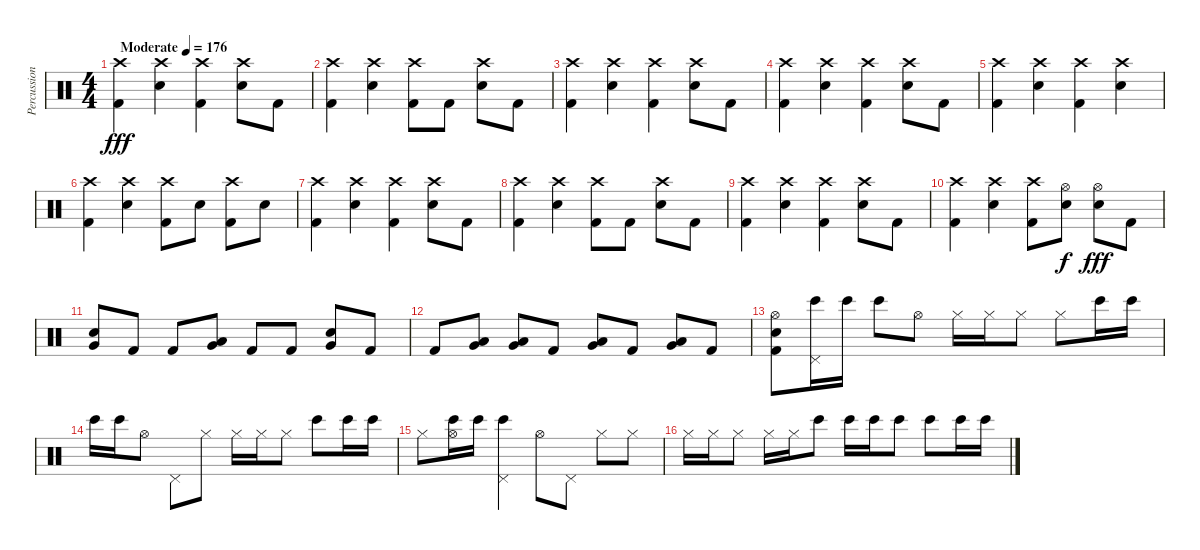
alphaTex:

\track ("Percussion" "Percussion") {instrument percussion}
\staff {score}
\articulation defaults
\ts (4 4)
\tempo (176 "Moderate")
\clef neutral
\ks c
("Crash high (hit)" "Kick (hit) 2").4{dy fff} ("Crash high (hit)" "Snare (hit) 2").4 ("Crash high (hit)" "Kick (hit) 2").4 ("Crash high (hit)" "Snare (hit) 2").8 "Kick (hit) 2".8 |
("Crash high (hit)" "Kick (hit) 2").4 ("Crash high (hit)" "Snare (hit) 2").4 ("Crash high (hit)" "Kick (hit) 2").8 "Kick (hit) 2".8 ("Crash high (hit)" "Snare (hit) 2").8 "Kick (hit) 2".8 |
("Crash high (hit)" "Kick (hit) 2").4 ("Crash high (hit)" "Snare (hit) 2").4 ("Crash high (hit)" "Kick (hit) 2").4 ("Crash high (hit)" "Snare (hit) 2").8 "Kick (hit) 2".8 |
("Crash high (hit)" "Kick (hit) 2").4 ("Crash high (hit)" "Snare (hit) 2").4 ("Crash high (hit)" "Kick (hit) 2").4 ("Crash high (hit)" "Snare (hit) 2").8 "Kick (hit) 2".8 |
("Crash high (hit)" "Kick (hit) 2").4 ("Crash high (hit)" "Snare (hit) 2").4 ("Crash high (hit)" "Kick (hit) 2").4 ("Crash high (hit)" "Snare (hit) 2").4 |
("Crash high (hit)" "Kick (hit) 2").4 ("Crash high (hit)" "Snare (hit) 2").4 ("Crash high (hit)" "Kick (hit) 2").8 "Snare (hit) 2".8 ("Crash high (hit)" "Kick (hit) 2").8 "Snare (hit) 2".8 |
("Crash high (hit)" "Kick (hit) 2").4 ("Crash high (hit)" "Snare (hit) 2").4 ("Crash high (hit)" "Kick (hit) 2").4 ("Crash high (hit)" "Snare (hit) 2").8 "Kick (hit) 2".8 |
("Crash high (hit)" "Kick (hit) 2").4 ("Crash high (hit)" "Snare (hit) 2").4 ("Crash high (hit)" "Kick (hit) 2").8 "Kick (hit) 2".8 ("Crash high (hit)" "Snare (hit) 2").8 "Kick (hit) 2".8 |
("Crash high (hit)" "Kick (hit) 2").4 ("Crash high (hit)" "Snare (hit) 2").4 ("Crash high (hit)" "Kick (hit) 2").4 ("Crash high (hit)" "Snare (hit) 2").8 "Kick (hit) 2".8 |
("Crash high (hit)" "Kick (hit) 2").4 ("Crash high (hit)" "Snare (hit) 2").4 ("Crash high (hit)" "Kick (hit) 2").8 ("Hi-Hat (open)" "Snare (hit) 2").8{dy f} ("Hi-Hat (open)" "Snare (hit) 2").8{dy fff} "Kick (hit) 2".8 |
("Snare (hit) 2" "Very Low Tom (hit)").8 "Kick (hit) 2".8 "Kick (hit) 2".8 ("Very Low Tom (hit)" "Low Floor Tom (hit)").8 "Kick (hit) 2".8 "Kick (hit) 2".8 ("Snare (hit) 2" "Very Low Tom (hit)").8 "Kick (hit) 2".8 |
"Kick (hit) 2".8 ("Very Low Tom (hit)" "Low Floor Tom (hit)").8 ("Very Low Tom (hit)" "Low Floor Tom (hit)").8 "Kick (hit) 2".8 ("Very Low Tom (hit)" "Low Floor Tom (hit)").8 "Kick (hit) 2".8 ("Very Low Tom (hit)" "Low Floor Tom (hit)").8 "Kick (hit) 2".8 |
("Hi-Hat (open)" "Snare (hit) 2" "Kick (hit) 2").8 ("Pedal Hi-Hat (hit)" "Bongo High (hit)").16 "Bongo High (hit)".16 "Bongo High (hit)".8 "Hi-Hat (open)".8 "Hi-Hat (closed)".16 "Hi-Hat (closed)".16 "Hi-Hat (closed)".8 "Hi-Hat (closed)".8 "Bongo High (hit)".16 "Bongo High (hit)".16 |
"Bongo High (hit)".16 "Bongo High (hit)".16 "Hi-Hat (open)".8 "Pedal Hi-Hat (hit)".8 "Hi-Hat (closed)".8 "Hi-Hat (closed)".16 "Hi-Hat (closed)".16 "Hi-Hat (closed)".8 "Bongo High (hit)".8 "Bongo High (hit)".16 "Bongo High (hit)".16 |
"Hi-Hat (closed)".8 ("Hi-Hat (open)" "Bongo High (hit)").16 "Bongo High (hit)".16 ("Pedal Hi-Hat (hit)" "Bongo High (hit)").4 "Hi-Hat (open)".8 "Pedal Hi-Hat (hit)".8 "Hi-Hat (closed)".8 "Hi-Hat (closed)".8 |
"Hi-Hat (closed)".16 "Hi-Hat (closed)".16 "Hi-Hat (closed)".8 "Hi-Hat (closed)".16 "Hi-Hat (closed)".16 "Bongo High (hit)".8 "Bongo High (hit)".16 "Bongo High (hit)".16 "Bongo High (hit)".8 "Bongo High (hit)".8 "Bongo High (hit)".16 "Bongo High (hit)".16
